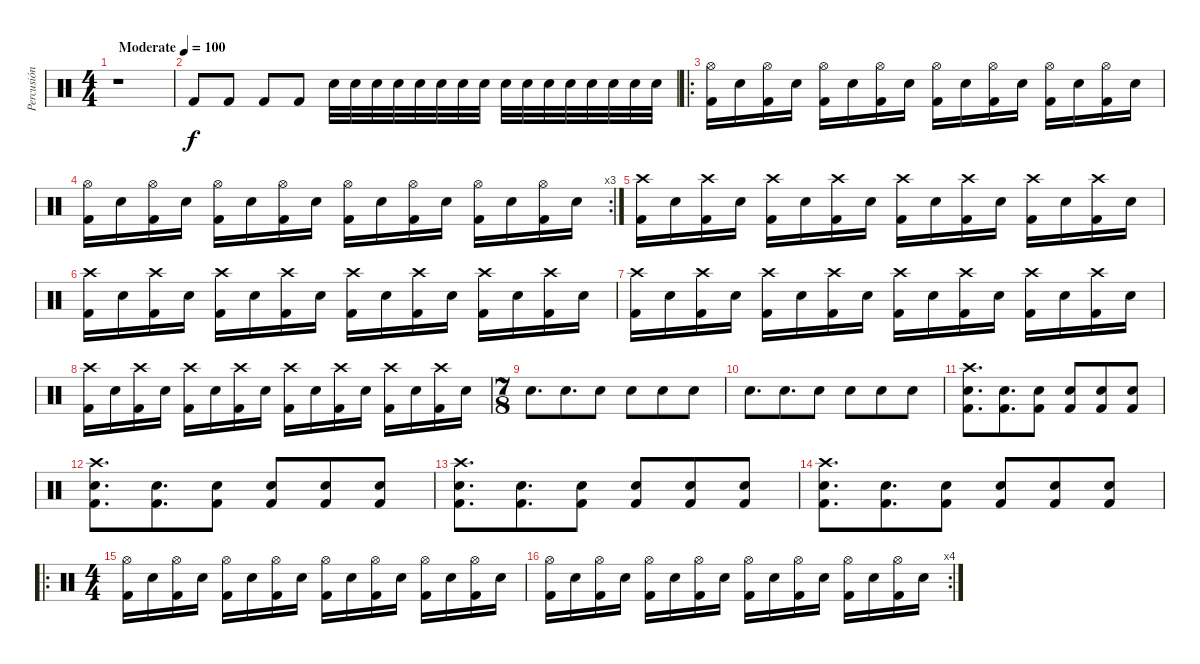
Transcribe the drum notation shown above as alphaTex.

\track ("Percusión" "Percusión") {instrument percussion}
\staff {score}
\articulation defaults
\ts (4 4)
\tempo (100 "Moderate")
\clef neutral
\ks c
r.1{dy f} |
"Kick (hit) 2".8 "Kick (hit) 2".8 "Kick (hit) 2".8 "Kick (hit) 2".8 "Electric Snare (hit)".32 "Electric Snare (hit)".32 "Electric Snare (hit)".32 "Electric Snare (hit)".32 "Electric Snare (hit)".32 "Electric Snare (hit)".32 "Electric Snare (hit)".32 "Electric Snare (hit)".32 "Electric Snare (hit)".32 "Electric Snare (hit)".32 "Electric Snare (hit)".32 "Electric Snare (hit)".32 "Electric Snare (hit)".32 "Electric Snare (hit)".32 "Electric Snare (hit)".32 "Electric Snare (hit)".32 |
\ro
("Hi-Hat (open)" "Kick (hit) 2").16 "Electric Snare (hit)".16 ("Hi-Hat (open)" "Kick (hit) 2").16 "Electric Snare (hit)".16 ("Hi-Hat (open)" "Kick (hit) 2").16 "Electric Snare (hit)".16 ("Hi-Hat (open)" "Kick (hit) 2").16 "Electric Snare (hit)".16 ("Hi-Hat (open)" "Kick (hit) 2").16 "Electric Snare (hit)".16 ("Hi-Hat (open)" "Kick (hit) 2").16 "Electric Snare (hit)".16 ("Hi-Hat (open)" "Kick (hit) 2").16 "Electric Snare (hit)".16 ("Hi-Hat (open)" "Kick (hit) 2").16 "Electric Snare (hit)".16 |
\rc 3
("Hi-Hat (open)" "Kick (hit) 2").16 "Electric Snare (hit)".16 ("Hi-Hat (open)" "Kick (hit) 2").16 "Electric Snare (hit)".16 ("Hi-Hat (open)" "Kick (hit) 2").16 "Electric Snare (hit)".16 ("Hi-Hat (open)" "Kick (hit) 2").16 "Electric Snare (hit)".16 ("Hi-Hat (open)" "Kick (hit) 2").16 "Electric Snare (hit)".16 ("Hi-Hat (open)" "Kick (hit) 2").16 "Electric Snare (hit)".16 ("Hi-Hat (open)" "Kick (hit) 2").16 "Electric Snare (hit)".16 ("Hi-Hat (open)" "Kick (hit) 2").16 "Electric Snare (hit)".16 |
("Crash high (hit)" "Kick (hit) 2").16 "Electric Snare (hit)".16 ("Crash high (hit)" "Kick (hit) 2").16 "Electric Snare (hit)".16 ("Crash high (hit)" "Kick (hit) 2").16 "Electric Snare (hit)".16 ("Crash high (hit)" "Kick (hit) 2").16 "Electric Snare (hit)".16 ("Crash high (hit)" "Kick (hit) 2").16 "Electric Snare (hit)".16 ("Crash high (hit)" "Kick (hit) 2").16 "Electric Snare (hit)".16 ("Crash high (hit)" "Kick (hit) 2").16 "Electric Snare (hit)".16 ("Crash high (hit)" "Kick (hit) 2").16 "Electric Snare (hit)".16 |
("Crash high (hit)" "Kick (hit) 2").16 "Electric Snare (hit)".16 ("Crash high (hit)" "Kick (hit) 2").16 "Electric Snare (hit)".16 ("Crash high (hit)" "Kick (hit) 2").16 "Electric Snare (hit)".16 ("Crash high (hit)" "Kick (hit) 2").16 "Electric Snare (hit)".16 ("Crash high (hit)" "Kick (hit) 2").16 "Electric Snare (hit)".16 ("Crash high (hit)" "Kick (hit) 2").16 "Electric Snare (hit)".16 ("Crash high (hit)" "Kick (hit) 2").16 "Electric Snare (hit)".16 ("Crash high (hit)" "Kick (hit) 2").16 "Electric Snare (hit)".16 |
("Crash high (hit)" "Kick (hit) 2").16 "Electric Snare (hit)".16 ("Crash high (hit)" "Kick (hit) 2").16 "Electric Snare (hit)".16 ("Crash high (hit)" "Kick (hit) 2").16 "Electric Snare (hit)".16 ("Crash high (hit)" "Kick (hit) 2").16 "Electric Snare (hit)".16 ("Crash high (hit)" "Kick (hit) 2").16 "Electric Snare (hit)".16 ("Crash high (hit)" "Kick (hit) 2").16 "Electric Snare (hit)".16 ("Crash high (hit)" "Kick (hit) 2").16 "Electric Snare (hit)".16 ("Crash high (hit)" "Kick (hit) 2").16 "Electric Snare (hit)".16 |
("Crash high (hit)" "Kick (hit) 2").16 "Electric Snare (hit)".16 ("Crash high (hit)" "Kick (hit) 2").16 "Electric Snare (hit)".16 ("Crash high (hit)" "Kick (hit) 2").16 "Electric Snare (hit)".16 ("Crash high (hit)" "Kick (hit) 2").16 "Electric Snare (hit)".16 ("Crash high (hit)" "Kick (hit) 2").16 "Electric Snare (hit)".16 ("Crash high (hit)" "Kick (hit) 2").16 "Electric Snare (hit)".16 ("Crash high (hit)" "Kick (hit) 2").16 "Electric Snare (hit)".16 ("Crash high (hit)" "Kick (hit) 2").16 "Electric Snare (hit)".16 |
\ts (7 8)
"Electric Snare (hit)".8{d} "Electric Snare (hit)".8{d} "Electric Snare (hit)".8 "Electric Snare (hit)".8 "Electric Snare (hit)".8 "Electric Snare (hit)".8 |
"Electric Snare (hit)".8{d} "Electric Snare (hit)".8{d} "Electric Snare (hit)".8 "Electric Snare (hit)".8 "Electric Snare (hit)".8 "Electric Snare (hit)".8 |
("Crash high (hit)" "Electric Snare (hit)" "Kick (hit) 2").8{d} ("Electric Snare (hit)" "Kick (hit) 2").8{d} ("Electric Snare (hit)" "Kick (hit) 2").8 ("Electric Snare (hit)" "Kick (hit) 2").8 ("Electric Snare (hit)" "Kick (hit) 2").8 ("Electric Snare (hit)" "Kick (hit) 2").8 |
("Crash high (hit)" "Electric Snare (hit)" "Kick (hit) 2").8{d} ("Electric Snare (hit)" "Kick (hit) 2").8{d} ("Electric Snare (hit)" "Kick (hit) 2").8 ("Electric Snare (hit)" "Kick (hit) 2").8 ("Electric Snare (hit)" "Kick (hit) 2").8 ("Electric Snare (hit)" "Kick (hit) 2").8 |
("Crash high (hit)" "Electric Snare (hit)" "Kick (hit) 2").8{d} ("Electric Snare (hit)" "Kick (hit) 2").8{d} ("Electric Snare (hit)" "Kick (hit) 2").8 ("Electric Snare (hit)" "Kick (hit) 2").8 ("Electric Snare (hit)" "Kick (hit) 2").8 ("Electric Snare (hit)" "Kick (hit) 2").8 |
("Crash high (hit)" "Electric Snare (hit)" "Kick (hit) 2").8{d} ("Electric Snare (hit)" "Kick (hit) 2").8{d} ("Electric Snare (hit)" "Kick (hit) 2").8 ("Electric Snare (hit)" "Kick (hit) 2").8 ("Electric Snare (hit)" "Kick (hit) 2").8 ("Electric Snare (hit)" "Kick (hit) 2").8 |
\ro
\ts (4 4)
("Hi-Hat (open)" "Kick (hit) 2").16 "Electric Snare (hit)".16 ("Hi-Hat (open)" "Kick (hit) 2").16 "Electric Snare (hit)".16 ("Hi-Hat (open)" "Kick (hit) 2").16 "Electric Snare (hit)".16 ("Hi-Hat (open)" "Kick (hit) 2").16 "Electric Snare (hit)".16 ("Hi-Hat (open)" "Kick (hit) 2").16 "Electric Snare (hit)".16 ("Hi-Hat (open)" "Kick (hit) 2").16 "Electric Snare (hit)".16 ("Hi-Hat (open)" "Kick (hit) 2").16 "Electric Snare (hit)".16 ("Hi-Hat (open)" "Kick (hit) 2").16 "Electric Snare (hit)".16 |
\rc 4
("Hi-Hat (open)" "Kick (hit) 2").16 "Electric Snare (hit)".16 ("Hi-Hat (open)" "Kick (hit) 2").16 "Electric Snare (hit)".16 ("Hi-Hat (open)" "Kick (hit) 2").16 "Electric Snare (hit)".16 ("Hi-Hat (open)" "Kick (hit) 2").16 "Electric Snare (hit)".16 ("Hi-Hat (open)" "Kick (hit) 2").16 "Electric Snare (hit)".16 ("Hi-Hat (open)" "Kick (hit) 2").16 "Electric Snare (hit)".16 ("Hi-Hat (open)" "Kick (hit) 2").16 "Electric Snare (hit)".16 ("Hi-Hat (open)" "Kick (hit) 2").16 "Electric Snare (hit)".16
